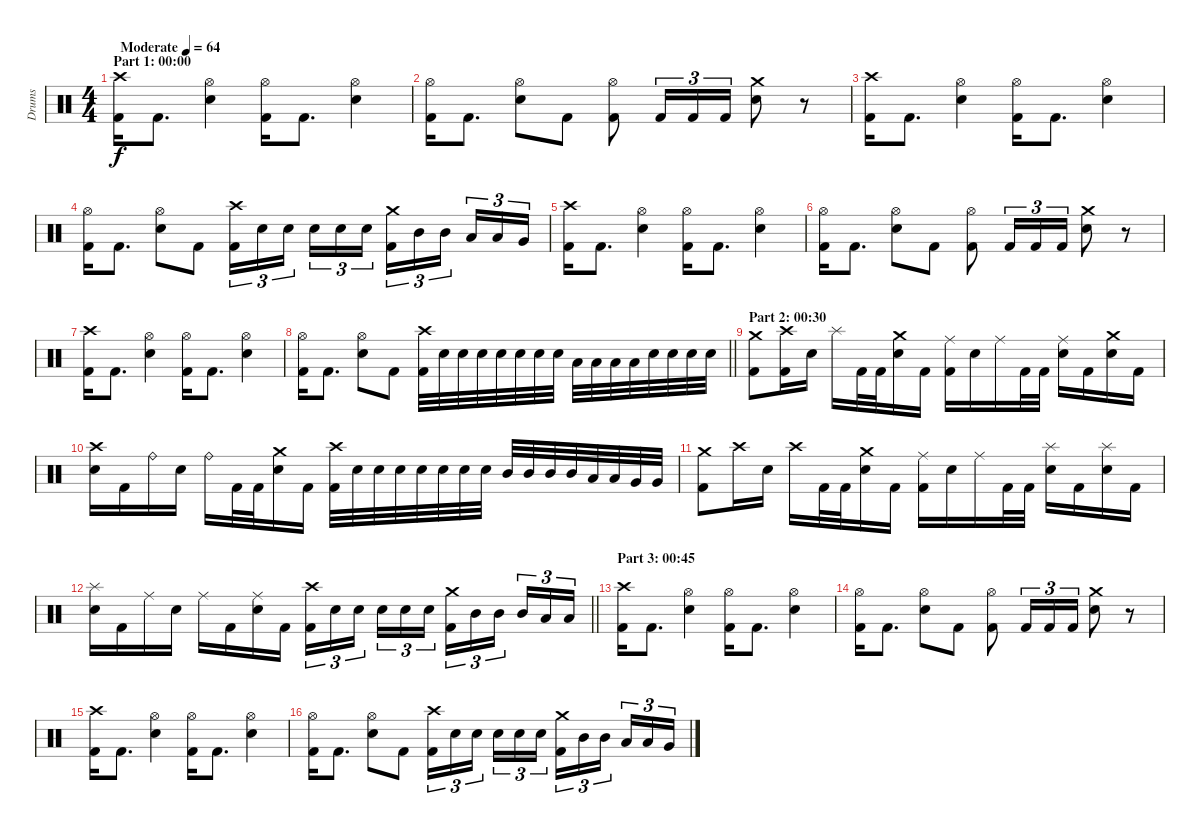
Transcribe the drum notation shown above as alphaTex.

\track ("Drums" "Drums") {instrument percussion}
\staff {score}
\articulation defaults
\ts (4 4)
\section ("" "Part 1: 00:00")
\tempo (64 "Moderate")
\clef neutral
\ks c
("Crash high (hit)" "Kick (hit) 2").16{dy f} "Kick (hit) 2".8{d} ("Hi-Hat (open)" "Electric Snare (hit)").4 ("Hi-Hat (open)" "Kick (hit) 2").16 "Kick (hit) 2".8{d} ("Hi-Hat (open)" "Electric Snare (hit)").4 |
("Hi-Hat (open)" "Kick (hit) 2").16 "Kick (hit) 2".8{d} ("Hi-Hat (open)" "Electric Snare (hit)").8 "Kick (hit) 2".8 ("Hi-Hat (open)" "Kick (hit) 2").8 "Kick (hit) 2".16{tu (3 2)} "Kick (hit) 2".16{tu (3 2)} "Kick (hit) 2".16{tu (3 2)} ("Crash medium (hit)" "Electric Snare (hit)").8 r.8 |
("Crash high (hit)" "Kick (hit) 2").16 "Kick (hit) 2".8{d} ("Hi-Hat (open)" "Electric Snare (hit)").4 ("Hi-Hat (open)" "Kick (hit) 2").16 "Kick (hit) 2".8{d} ("Hi-Hat (open)" "Electric Snare (hit)").4 |
("Hi-Hat (open)" "Kick (hit) 2").16 "Kick (hit) 2".8{d} ("Hi-Hat (open)" "Electric Snare (hit)").8 "Kick (hit) 2".8 ("Crash high (hit)" "Kick (hit) 2").16{tu (3 2)} "Electric Snare (hit)".16{tu (3 2)} "Electric Snare (hit)".16{tu (3 2) beam splitsecondary} "Electric Snare (hit)".16{tu (3 2)} "Electric Snare (hit)".16{tu (3 2)} "Electric Snare (hit)".16{tu (3 2)} ("Crash medium (hit)" "Kick (hit) 2").16{tu (3 2)} "Mid Tom (hit)".16{tu (3 2)} "Mid Tom (hit)".16{tu (3 2) beam splitsecondary} "Low Tom (hit)".16{tu (3 2)} "Low Tom (hit)".16{tu (3 2)} "Very Low Tom (hit)".16{tu (3 2)} |
("Crash high (hit)" "Kick (hit) 2").16 "Kick (hit) 2".8{d} ("Hi-Hat (open)" "Electric Snare (hit)").4 ("Hi-Hat (open)" "Kick (hit) 2").16 "Kick (hit) 2".8{d} ("Hi-Hat (open)" "Electric Snare (hit)").4 |
("Hi-Hat (open)" "Kick (hit) 2").16 "Kick (hit) 2".8{d} ("Hi-Hat (open)" "Electric Snare (hit)").8 "Kick (hit) 2".8 ("Hi-Hat (open)" "Kick (hit) 2").8 "Kick (hit) 2".16{tu (3 2)} "Kick (hit) 2".16{tu (3 2)} "Kick (hit) 2".16{tu (3 2)} ("Crash medium (hit)" "Electric Snare (hit)").8 r.8 |
("Crash high (hit)" "Kick (hit) 2").16 "Kick (hit) 2".8{d} ("Hi-Hat (open)" "Electric Snare (hit)").4 ("Hi-Hat (open)" "Kick (hit) 2").16 "Kick (hit) 2".8{d} ("Hi-Hat (open)" "Electric Snare (hit)").4 |
\barLineRight lightlight
("Hi-Hat (open)" "Kick (hit) 2").16 "Kick (hit) 2".8{d} ("Hi-Hat (open)" "Electric Snare (hit)").8 "Kick (hit) 2".8 ("Crash high (hit)" "Kick (hit) 2").32 "Electric Snare (hit)".32 "Electric Snare (hit)".32 "Electric Snare (hit)".32 "Electric Snare (hit)".32 "Electric Snare (hit)".32 "Electric Snare (hit)".32 "Electric Snare (hit)".32 "Low Tom (hit)".32 "Low Tom (hit)".32 "Low Tom (hit)".32 "Low Tom (hit)".32 "Electric Snare (hit)".32 "Electric Snare (hit)".32 "Electric Snare (hit)".32 "Electric Snare (hit)".32 |
\section ("" "Part 2: 00:30")
("Crash medium (hit)" "Kick (hit) 2").8 ("Crash high (hit)" "Kick (hit) 2").16 "Electric Snare (hit)".16 "Splash (hit)".16 "Kick (hit) 2".32 "Kick (hit) 2".32 ("Crash medium (hit)" "Electric Snare (hit)").16 "Kick (hit) 2".16 ("Ride (middle)" "Kick (hit) 2").16 "Electric Snare (hit)".16 "Ride (middle)".16 "Kick (hit) 2".32 "Kick (hit) 2".32 ("Ride (middle)" "Electric Snare (hit)").16 "Kick (hit) 2".16 ("Crash medium (hit)" "Electric Snare (hit)").16 "Kick (hit) 2".16 |
("Crash high (hit)" "Electric Snare (hit)").16 "Kick (hit) 2".16 "Ride (bell)".16 "Electric Snare (hit)".16 "Ride (bell)".16 "Kick (hit) 2".32 "Kick (hit) 2".32 ("Crash medium (hit)" "Electric Snare (hit)").16 "Kick (hit) 2".16 ("Crash high (hit)" "Kick (hit) 2").32 "Electric Snare (hit)".32 "Electric Snare (hit)".32 "Electric Snare (hit)".32 "Electric Snare (hit)".32 "Electric Snare (hit)".32 "Electric Snare (hit)".32 "Electric Snare (hit)".32 "Mid Tom (hit)".32 "Mid Tom (hit)".32 "Mid Tom (hit)".32 "Mid Tom (hit)".32 "Low Tom (hit)".32 "Low Tom (hit)".32 "Very Low Tom (hit)".32 "Very Low Tom (hit)".32 |
("Crash medium (hit)" "Kick (hit) 2").8 "Crash high (hit)".16 "Electric Snare (hit)".16 "Crash high (hit)".16 "Kick (hit) 2".32 "Kick (hit) 2".32 ("Crash medium (hit)" "Electric Snare (hit)").16 "Kick (hit) 2".16 ("Ride (middle)" "Kick (hit) 2").16 "Electric Snare (hit)".16 "Ride (middle)".16 "Kick (hit) 2".32 "Kick (hit) 2".32 ("Splash (hit)" "Electric Snare (hit)").16 "Kick (hit) 2".16 ("Splash (hit)" "Electric Snare (hit)").16 "Kick (hit) 2".16 |
\barLineRight lightlight
("Splash (hit)" "Electric Snare (hit)").16 "Kick (hit) 2".16 "Ride (middle)".16 "Electric Snare (hit)".16 "Ride (middle)".16 "Kick (hit) 2".16 ("Ride (middle)" "Electric Snare (hit)").16 "Kick (hit) 2".16 ("Crash high (hit)" "Kick (hit) 2").16{tu (3 2)} "Electric Snare (hit)".16{tu (3 2)} "Electric Snare (hit)".16{tu (3 2) beam splitsecondary} "Electric Snare (hit)".16{tu (3 2)} "Electric Snare (hit)".16{tu (3 2)} "Electric Snare (hit)".16{tu (3 2)} ("Crash medium (hit)" "Kick (hit) 2").16{tu (3 2)} "Mid Tom (hit)".16{tu (3 2)} "Mid Tom (hit)".16{tu (3 2) beam splitsecondary} "Mid Tom (hit)".16{tu (3 2)} "Low Tom (hit)".16{tu (3 2)} "Low Tom (hit)".16{tu (3 2)} |
\section ("" "Part 3: 00:45")
("Crash high (hit)" "Kick (hit) 2").16 "Kick (hit) 2".8{d} ("Hi-Hat (open)" "Electric Snare (hit)").4 ("Hi-Hat (open)" "Kick (hit) 2").16 "Kick (hit) 2".8{d} ("Hi-Hat (open)" "Electric Snare (hit)").4 |
("Hi-Hat (open)" "Kick (hit) 2").16 "Kick (hit) 2".8{d} ("Hi-Hat (open)" "Electric Snare (hit)").8 "Kick (hit) 2".8 ("Hi-Hat (open)" "Kick (hit) 2").8 "Kick (hit) 2".16{tu (3 2)} "Kick (hit) 2".16{tu (3 2)} "Kick (hit) 2".16{tu (3 2)} ("Crash medium (hit)" "Electric Snare (hit)").8 r.8 |
("Crash high (hit)" "Kick (hit) 2").16 "Kick (hit) 2".8{d} ("Hi-Hat (open)" "Electric Snare (hit)").4 ("Hi-Hat (open)" "Kick (hit) 2").16 "Kick (hit) 2".8{d} ("Hi-Hat (open)" "Electric Snare (hit)").4 |
("Hi-Hat (open)" "Kick (hit) 2").16 "Kick (hit) 2".8{d} ("Hi-Hat (open)" "Electric Snare (hit)").8 "Kick (hit) 2".8 ("Crash high (hit)" "Kick (hit) 2").16{tu (3 2)} "Electric Snare (hit)".16{tu (3 2)} "Electric Snare (hit)".16{tu (3 2) beam splitsecondary} "Electric Snare (hit)".16{tu (3 2)} "Electric Snare (hit)".16{tu (3 2)} "Electric Snare (hit)".16{tu (3 2)} ("Crash medium (hit)" "Kick (hit) 2").16{tu (3 2)} "Mid Tom (hit)".16{tu (3 2)} "Mid Tom (hit)".16{tu (3 2) beam splitsecondary} "Low Tom (hit)".16{tu (3 2)} "Low Tom (hit)".16{tu (3 2)} "Very Low Tom (hit)".16{tu (3 2)}
